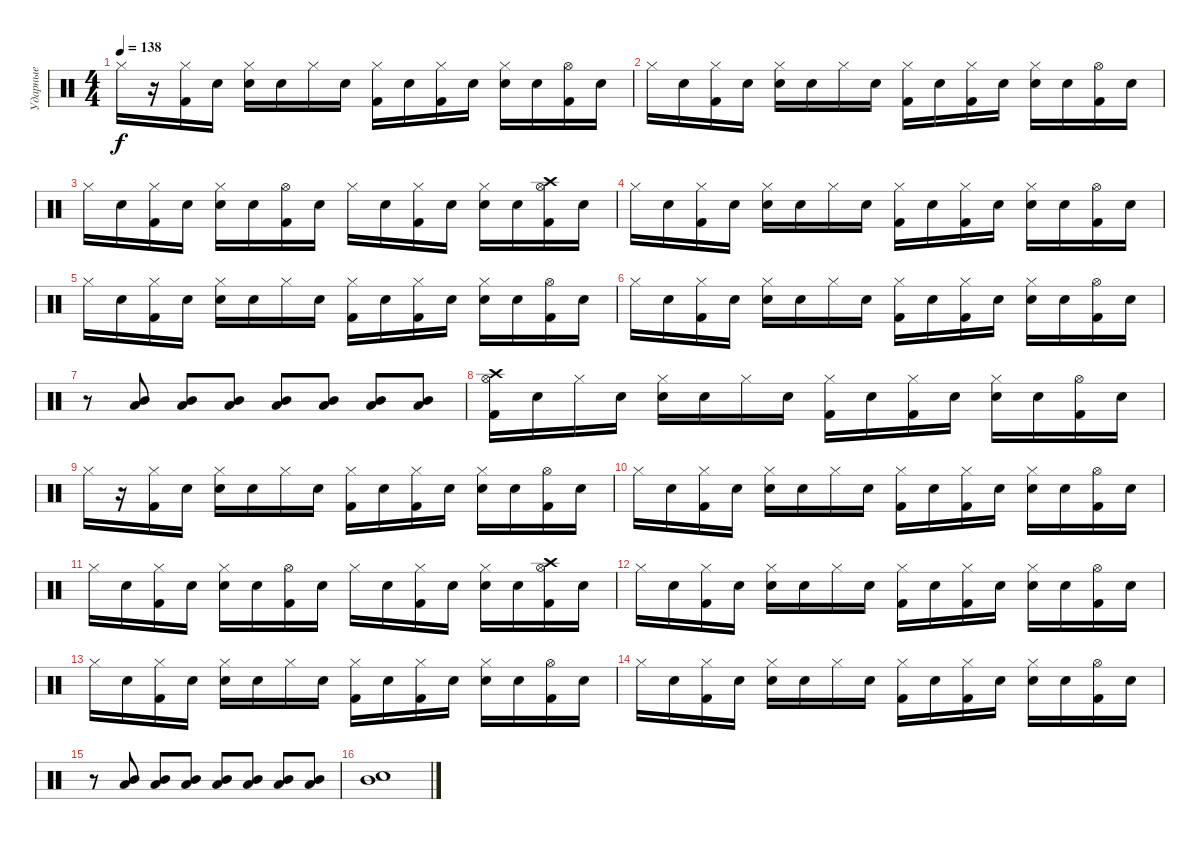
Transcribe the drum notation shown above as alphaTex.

\track ("Ударные" "Ударные") {instrument percussion}
\staff {score}
\articulation defaults
\ts (4 4)
\tempo 138
\clef neutral
\ks c "Hi-Hat (closed)".16{dy f}
r.16 ("Hi-Hat (closed)" "Kick (hit) 2").16 "Snare (hit)".16 ("Hi-Hat (closed)" "Snare (hit) 2").16 "Snare (hit)".16 "Hi-Hat (closed)".16 "Snare (hit)".16 ("Hi-Hat (closed)" "Kick (hit) 2").16 "Snare (hit)".16 ("Hi-Hat (closed)" "Kick (hit) 2").16 "Snare (hit)".16 ("Hi-Hat (closed)" "Snare (hit) 2").16 "Snare (hit)".16 ("Hi-Hat (open)" "Kick (hit) 2").16 "Snare (hit)".16 |
"Hi-Hat (closed)".16 "Snare (hit)".16 ("Hi-Hat (closed)" "Kick (hit) 2").16 "Snare (hit)".16 ("Hi-Hat (closed)" "Snare (hit) 2").16 "Snare (hit)".16 "Hi-Hat (closed)".16 "Snare (hit)".16 ("Hi-Hat (closed)" "Kick (hit) 2").16 "Snare (hit)".16 ("Hi-Hat (closed)" "Kick (hit) 2").16 "Snare (hit)".16 ("Hi-Hat (closed)" "Snare (hit) 2").16 "Snare (hit)".16 ("Hi-Hat (open)" "Kick (hit) 2").16 "Snare (hit)".16 |
"Hi-Hat (closed)".16 "Snare (hit)".16 ("Hi-Hat (closed)" "Kick (hit) 2").16 "Snare (hit)".16 ("Hi-Hat (closed)" "Snare (hit) 2").16 "Snare (hit)".16 ("Hi-Hat (open)" "Kick (hit) 2").16 "Snare (hit)".16 "Hi-Hat (closed)".16 "Snare (hit)".16 ("Hi-Hat (closed)" "Kick (hit) 2").16 "Snare (hit)".16 ("Hi-Hat (closed)" "Snare (hit) 2").16 "Snare (hit)".16 ("Hi-Hat (open)" "Crash high (hit)" "Kick (hit) 2").16 "Snare (hit)".16 |
"Hi-Hat (closed)".16 "Snare (hit)".16 ("Hi-Hat (closed)" "Kick (hit) 2").16 "Snare (hit)".16 ("Hi-Hat (closed)" "Snare (hit) 2").16 "Snare (hit)".16 "Hi-Hat (closed)".16 "Snare (hit)".16 ("Hi-Hat (closed)" "Kick (hit) 2").16 "Snare (hit)".16 ("Hi-Hat (closed)" "Kick (hit) 2").16 "Snare (hit)".16 ("Hi-Hat (closed)" "Snare (hit) 2").16 "Snare (hit)".16 ("Hi-Hat (open)" "Kick (hit) 2").16 "Snare (hit)".16 |
"Hi-Hat (closed)".16 "Snare (hit)".16 ("Hi-Hat (closed)" "Kick (hit) 2").16 "Snare (hit)".16 ("Hi-Hat (closed)" "Snare (hit) 2").16 "Snare (hit)".16 "Hi-Hat (closed)".16 "Snare (hit)".16 ("Hi-Hat (closed)" "Kick (hit) 2").16 "Snare (hit)".16 ("Hi-Hat (closed)" "Kick (hit) 2").16 "Snare (hit)".16 ("Hi-Hat (closed)" "Snare (hit) 2").16 "Snare (hit)".16 ("Hi-Hat (open)" "Kick (hit) 2").16 "Snare (hit)".16 |
"Hi-Hat (closed)".16 "Snare (hit)".16 ("Hi-Hat (closed)" "Kick (hit) 2").16 "Snare (hit)".16 ("Hi-Hat (closed)" "Snare (hit) 2").16 "Snare (hit)".16 "Hi-Hat (closed)".16 "Snare (hit)".16 ("Hi-Hat (closed)" "Kick (hit) 2").16 "Snare (hit)".16 ("Hi-Hat (closed)" "Kick (hit) 2").16 "Snare (hit)".16 ("Hi-Hat (closed)" "Snare (hit) 2").16 "Snare (hit)".16 ("Hi-Hat (open)" "Kick (hit) 2").16 "Snare (hit)".16 |
r.8 ("Mid Tom (hit)" "Low Tom (hit)").8 ("Low Tom (hit)" "Mid Tom (hit)").8 ("Low Tom (hit)" "Mid Tom (hit)").8 ("Low Tom (hit)" "Mid Tom (hit)").8 ("Low Tom (hit)" "Mid Tom (hit)").8 ("Low Tom (hit)" "Mid Tom (hit)").8 ("Low Tom (hit)" "Mid Tom (hit)").8 |
("Hi-Hat (open)" "Crash high (hit)" "Kick (hit) 2").16 "Snare (hit)".16 "Hi-Hat (closed)".16 "Snare (hit)".16 ("Hi-Hat (closed)" "Snare (hit) 2").16 "Snare (hit)".16 "Hi-Hat (closed)".16 "Snare (hit)".16 ("Hi-Hat (closed)" "Kick (hit) 2").16 "Snare (hit)".16 ("Hi-Hat (closed)" "Kick (hit) 2").16 "Snare (hit)".16 ("Hi-Hat (closed)" "Snare (hit) 2").16 "Snare (hit)".16 ("Hi-Hat (open)" "Kick (hit) 2").16 "Snare (hit)".16 |
"Hi-Hat (closed)".16 r.16 ("Hi-Hat (closed)" "Kick (hit) 2").16 "Snare (hit)".16 ("Hi-Hat (closed)" "Snare (hit) 2").16 "Snare (hit)".16 "Hi-Hat (closed)".16 "Snare (hit)".16 ("Hi-Hat (closed)" "Kick (hit) 2").16 "Snare (hit)".16 ("Hi-Hat (closed)" "Kick (hit) 2").16 "Snare (hit)".16 ("Hi-Hat (closed)" "Snare (hit) 2").16 "Snare (hit)".16 ("Hi-Hat (open)" "Kick (hit) 2").16 "Snare (hit)".16 |
"Hi-Hat (closed)".16 "Snare (hit)".16 ("Hi-Hat (closed)" "Kick (hit) 2").16 "Snare (hit)".16 ("Hi-Hat (closed)" "Snare (hit) 2").16 "Snare (hit)".16 "Hi-Hat (closed)".16 "Snare (hit)".16 ("Hi-Hat (closed)" "Kick (hit) 2").16 "Snare (hit)".16 ("Hi-Hat (closed)" "Kick (hit) 2").16 "Snare (hit)".16 ("Hi-Hat (closed)" "Snare (hit) 2").16 "Snare (hit)".16 ("Hi-Hat (open)" "Kick (hit) 2").16 "Snare (hit)".16 |
"Hi-Hat (closed)".16 "Snare (hit)".16 ("Hi-Hat (closed)" "Kick (hit) 2").16 "Snare (hit)".16 ("Hi-Hat (closed)" "Snare (hit) 2").16 "Snare (hit)".16 ("Hi-Hat (open)" "Kick (hit) 2").16 "Snare (hit)".16 "Hi-Hat (closed)".16 "Snare (hit)".16 ("Hi-Hat (closed)" "Kick (hit) 2").16 "Snare (hit)".16 ("Hi-Hat (closed)" "Snare (hit) 2").16 "Snare (hit)".16 ("Hi-Hat (open)" "Crash high (hit)" "Kick (hit) 2").16 "Snare (hit)".16 |
"Hi-Hat (closed)".16 "Snare (hit)".16 ("Hi-Hat (closed)" "Kick (hit) 2").16 "Snare (hit)".16 ("Hi-Hat (closed)" "Snare (hit) 2").16 "Snare (hit)".16 "Hi-Hat (closed)".16 "Snare (hit)".16 ("Hi-Hat (closed)" "Kick (hit) 2").16 "Snare (hit)".16 ("Hi-Hat (closed)" "Kick (hit) 2").16 "Snare (hit)".16 ("Hi-Hat (closed)" "Snare (hit) 2").16 "Snare (hit)".16 ("Hi-Hat (open)" "Kick (hit) 2").16 "Snare (hit)".16 |
"Hi-Hat (closed)".16 "Snare (hit)".16 ("Hi-Hat (closed)" "Kick (hit) 2").16 "Snare (hit)".16 ("Hi-Hat (closed)" "Snare (hit) 2").16 "Snare (hit)".16 "Hi-Hat (closed)".16 "Snare (hit)".16 ("Hi-Hat (closed)" "Kick (hit) 2").16 "Snare (hit)".16 ("Hi-Hat (closed)" "Kick (hit) 2").16 "Snare (hit)".16 ("Hi-Hat (closed)" "Snare (hit) 2").16 "Snare (hit)".16 ("Hi-Hat (open)" "Kick (hit) 2").16 "Snare (hit)".16 |
"Hi-Hat (closed)".16 "Snare (hit)".16 ("Hi-Hat (closed)" "Kick (hit) 2").16 "Snare (hit)".16 ("Hi-Hat (closed)" "Snare (hit) 2").16 "Snare (hit)".16 "Hi-Hat (closed)".16 "Snare (hit)".16 ("Hi-Hat (closed)" "Kick (hit) 2").16 "Snare (hit)".16 ("Hi-Hat (closed)" "Kick (hit) 2").16 "Snare (hit)".16 ("Hi-Hat (closed)" "Snare (hit) 2").16 "Snare (hit)".16 ("Hi-Hat (open)" "Kick (hit) 2").16 "Snare (hit)".16 |
r.8 ("Mid Tom (hit)" "Low Tom (hit)").8 ("Low Tom (hit)" "Mid Tom (hit)").8 ("Low Tom (hit)" "Mid Tom (hit)").8 ("Low Tom (hit)" "Mid Tom (hit)").8 ("Low Tom (hit)" "Mid Tom (hit)").8 ("Low Tom (hit)" "Mid Tom (hit)").8 ("Low Tom (hit)" "Mid Tom (hit)").8 |
("Mid Tom (hit)" "Snare (hit) 2").1
